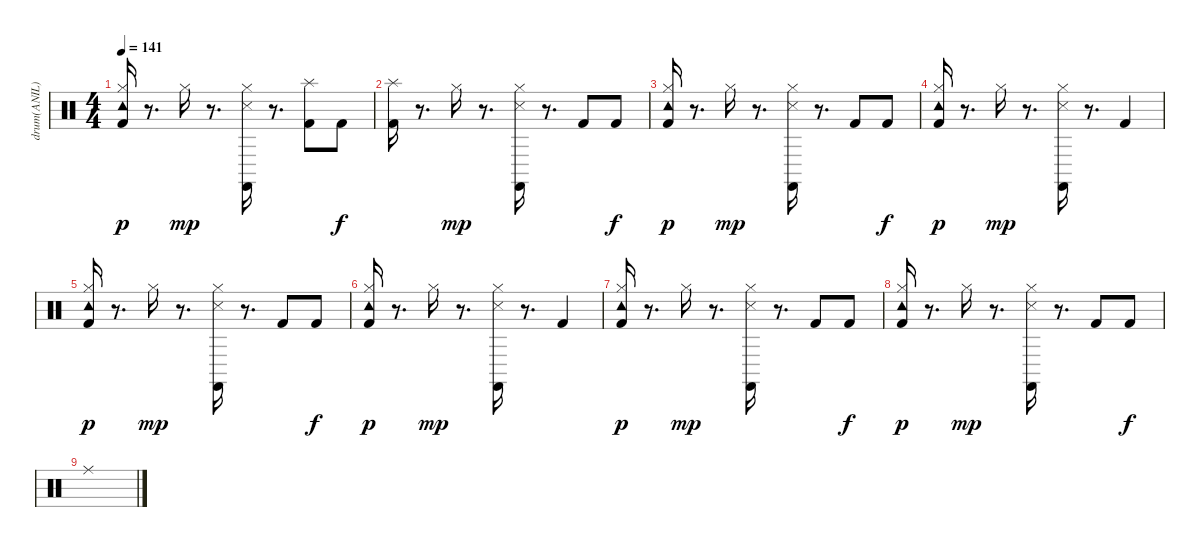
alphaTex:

\track ("drum(ANIL)" "drum(ANIL)") {instrument percussion}
\staff {score}
\articulation defaults
\ts (4 4)
\tempo 141
\clef neutral
\ks c
("Kick (hit) 2" "Hi-Hat (closed)" "Tambourine (hit)").16{dy p} r.8{d} "Hi-Hat (closed)".16{dy mp} r.8{d} ("Castanets (hit)" "Snare (side stick) 3" "Hi-Hat (closed)").16 r.8{d} ("Kick (hit) 2" "Splash (hit)").8 "Kick (hit) 2".8{dy f} |
("Kick (hit) 2" "Splash (hit)").16 r.8{d} "Hi-Hat (closed)".16{dy mp} r.8{d} ("Castanets (hit)" "Snare (side stick) 3" "Hi-Hat (closed)").16 r.8{d} "Kick (hit) 2".8 "Kick (hit) 2".8{dy f} |
("Kick (hit) 2" "Hi-Hat (closed)" "Tambourine (hit)").16{dy p} r.8{d} "Hi-Hat (closed)".16{dy mp} r.8{d} ("Castanets (hit)" "Snare (side stick) 3" "Hi-Hat (closed)").16 r.8{d} "Kick (hit) 2".8 "Kick (hit) 2".8{dy f} |
("Kick (hit) 2" "Hi-Hat (closed)" "Tambourine (hit)").16{dy p} r.8{d} "Hi-Hat (closed)".16{dy mp} r.8{d} ("Castanets (hit)" "Snare (side stick) 3" "Hi-Hat (closed)").16 r.8{d} "Kick (hit) 2".4 |
("Kick (hit) 2" "Hi-Hat (closed)" "Tambourine (hit)").16{dy p} r.8{d} "Hi-Hat (closed)".16{dy mp} r.8{d} ("Castanets (hit)" "Snare (side stick) 3" "Hi-Hat (closed)").16 r.8{d} "Kick (hit) 2".8 "Kick (hit) 2".8{dy f} |
("Kick (hit) 2" "Hi-Hat (closed)" "Tambourine (hit)").16{dy p} r.8{d} "Hi-Hat (closed)".16{dy mp} r.8{d} ("Castanets (hit)" "Snare (side stick) 3" "Hi-Hat (closed)").16 r.8{d} "Kick (hit) 2".4 |
("Kick (hit) 2" "Hi-Hat (closed)" "Tambourine (hit)").16{dy p} r.8{d} "Hi-Hat (closed)".16{dy mp} r.8{d} ("Castanets (hit)" "Snare (side stick) 3" "Hi-Hat (closed)").16 r.8{d} "Kick (hit) 2".8 "Kick (hit) 2".8{dy f} |
("Kick (hit) 2" "Hi-Hat (closed)" "Tambourine (hit)").16{dy p} r.8{d} "Hi-Hat (closed)".16{dy mp} r.8{d} ("Castanets (hit)" "Snare (side stick) 3" "Hi-Hat (closed)").16 r.8{d} "Kick (hit) 2".8 "Kick (hit) 2".8{dy f} |
"Ride (middle)".1
